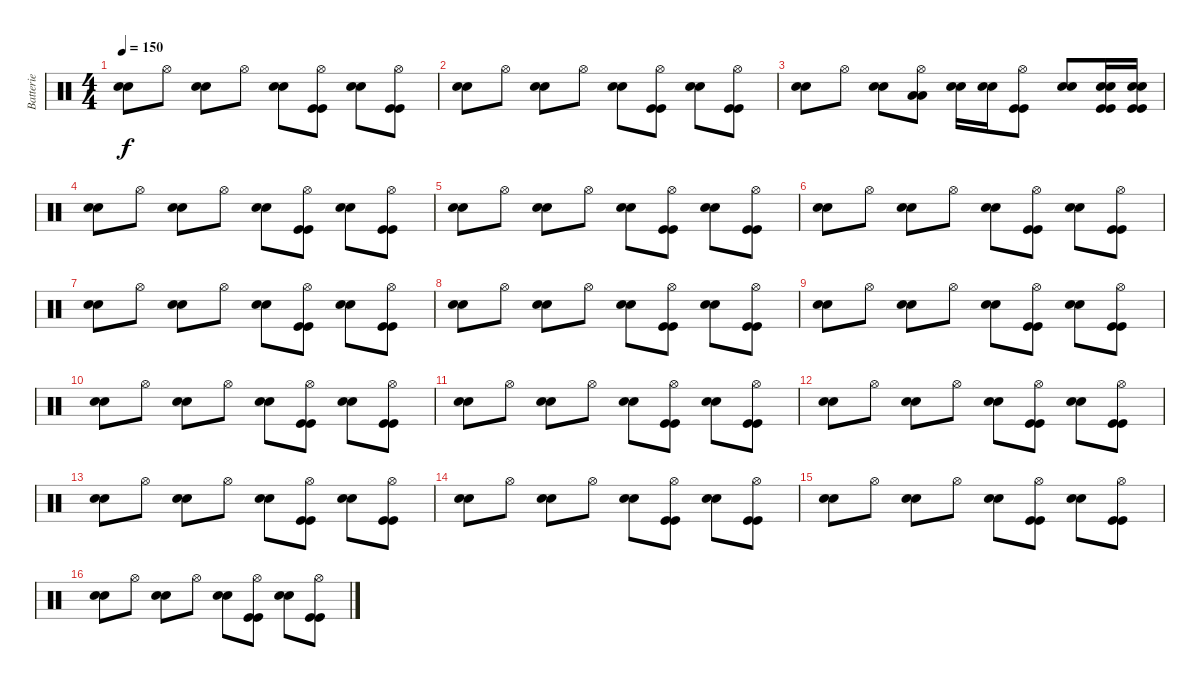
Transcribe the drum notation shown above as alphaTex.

\track ("Batterie" "Batterie") {instrument percussion}
\staff {score}
\articulation defaults
\ts (4 4)
\tempo 150
\clef neutral
\ks c
("Electric Snare (hit)" "Electric Snare (hit)").8{dy f} "Hi-Hat (open)".8 ("Electric Snare (hit)" "Electric Snare (hit)").8 "Hi-Hat (open)".8 ("Electric Snare (hit)" "Electric Snare (hit)").8 ("Hi-Hat (open)" "Kick (hit)" "Kick (hit)").8 ("Electric Snare (hit)" "Electric Snare (hit)").8 ("Hi-Hat (open)" "Kick (hit)" "Kick (hit)").8 |
("Electric Snare (hit)" "Electric Snare (hit)").8 "Hi-Hat (open)".8 ("Electric Snare (hit)" "Electric Snare (hit)").8 "Hi-Hat (open)".8 ("Electric Snare (hit)" "Electric Snare (hit)").8 ("Hi-Hat (open)" "Kick (hit)" "Kick (hit)").8 ("Electric Snare (hit)" "Electric Snare (hit)").8 ("Hi-Hat (open)" "Kick (hit)" "Kick (hit)").8 |
("Electric Snare (hit)" "Electric Snare (hit)").8 "Hi-Hat (open)".8 ("Electric Snare (hit)" "Electric Snare (hit)").8 ("Hi-Hat (open)" "Low Floor Tom (hit)" "Low Floor Tom (hit)").8 ("Electric Snare (hit)" "Electric Snare (hit)").16 ("Electric Snare (hit)" "Electric Snare (hit)").16 ("Hi-Hat (open)" "Kick (hit)" "Kick (hit)").8 ("Electric Snare (hit)" "Electric Snare (hit)").8 ("Electric Snare (hit)" "Electric Snare (hit)" "Kick (hit)" "Kick (hit)").16 ("Electric Snare (hit)" "Electric Snare (hit)" "Kick (hit)" "Kick (hit)").16 |
("Electric Snare (hit)" "Electric Snare (hit)").8 "Hi-Hat (open)".8 ("Electric Snare (hit)" "Electric Snare (hit)").8 "Hi-Hat (open)".8 ("Electric Snare (hit)" "Electric Snare (hit)").8 ("Hi-Hat (open)" "Kick (hit)" "Kick (hit)").8 ("Electric Snare (hit)" "Electric Snare (hit)").8 ("Hi-Hat (open)" "Kick (hit)" "Kick (hit)").8 |
("Electric Snare (hit)" "Electric Snare (hit)").8 "Hi-Hat (open)".8 ("Electric Snare (hit)" "Electric Snare (hit)").8 "Hi-Hat (open)".8 ("Electric Snare (hit)" "Electric Snare (hit)").8 ("Hi-Hat (open)" "Kick (hit)" "Kick (hit)").8 ("Electric Snare (hit)" "Electric Snare (hit)").8 ("Hi-Hat (open)" "Kick (hit)" "Kick (hit)").8 |
("Electric Snare (hit)" "Electric Snare (hit)").8 "Hi-Hat (open)".8 ("Electric Snare (hit)" "Electric Snare (hit)").8 "Hi-Hat (open)".8 ("Electric Snare (hit)" "Electric Snare (hit)").8 ("Hi-Hat (open)" "Kick (hit)" "Kick (hit)").8 ("Electric Snare (hit)" "Electric Snare (hit)").8 ("Hi-Hat (open)" "Kick (hit)" "Kick (hit)").8 |
("Electric Snare (hit)" "Electric Snare (hit)").8 "Hi-Hat (open)".8 ("Electric Snare (hit)" "Electric Snare (hit)").8 "Hi-Hat (open)".8 ("Electric Snare (hit)" "Electric Snare (hit)").8 ("Hi-Hat (open)" "Kick (hit)" "Kick (hit)").8 ("Electric Snare (hit)" "Electric Snare (hit)").8 ("Hi-Hat (open)" "Kick (hit)" "Kick (hit)").8 |
("Electric Snare (hit)" "Electric Snare (hit)").8 "Hi-Hat (open)".8 ("Electric Snare (hit)" "Electric Snare (hit)").8 "Hi-Hat (open)".8 ("Electric Snare (hit)" "Electric Snare (hit)").8 ("Hi-Hat (open)" "Kick (hit)" "Kick (hit)").8 ("Electric Snare (hit)" "Electric Snare (hit)").8 ("Hi-Hat (open)" "Kick (hit)" "Kick (hit)").8 |
("Electric Snare (hit)" "Electric Snare (hit)").8 "Hi-Hat (open)".8 ("Electric Snare (hit)" "Electric Snare (hit)").8 "Hi-Hat (open)".8 ("Electric Snare (hit)" "Electric Snare (hit)").8 ("Hi-Hat (open)" "Kick (hit)" "Kick (hit)").8 ("Electric Snare (hit)" "Electric Snare (hit)").8 ("Hi-Hat (open)" "Kick (hit)" "Kick (hit)").8 |
("Electric Snare (hit)" "Electric Snare (hit)").8 "Hi-Hat (open)".8 ("Electric Snare (hit)" "Electric Snare (hit)").8 "Hi-Hat (open)".8 ("Electric Snare (hit)" "Electric Snare (hit)").8 ("Hi-Hat (open)" "Kick (hit)" "Kick (hit)").8 ("Electric Snare (hit)" "Electric Snare (hit)").8 ("Hi-Hat (open)" "Kick (hit)" "Kick (hit)").8 |
("Electric Snare (hit)" "Electric Snare (hit)").8 "Hi-Hat (open)".8 ("Electric Snare (hit)" "Electric Snare (hit)").8 "Hi-Hat (open)".8 ("Electric Snare (hit)" "Electric Snare (hit)").8 ("Hi-Hat (open)" "Kick (hit)" "Kick (hit)").8 ("Electric Snare (hit)" "Electric Snare (hit)").8 ("Hi-Hat (open)" "Kick (hit)" "Kick (hit)").8 |
("Electric Snare (hit)" "Electric Snare (hit)").8 "Hi-Hat (open)".8 ("Electric Snare (hit)" "Electric Snare (hit)").8 "Hi-Hat (open)".8 ("Electric Snare (hit)" "Electric Snare (hit)").8 ("Hi-Hat (open)" "Kick (hit)" "Kick (hit)").8 ("Electric Snare (hit)" "Electric Snare (hit)").8 ("Hi-Hat (open)" "Kick (hit)" "Kick (hit)").8 |
("Electric Snare (hit)" "Electric Snare (hit)").8 "Hi-Hat (open)".8 ("Electric Snare (hit)" "Electric Snare (hit)").8 "Hi-Hat (open)".8 ("Electric Snare (hit)" "Electric Snare (hit)").8 ("Hi-Hat (open)" "Kick (hit)" "Kick (hit)").8 ("Electric Snare (hit)" "Electric Snare (hit)").8 ("Hi-Hat (open)" "Kick (hit)" "Kick (hit)").8 |
("Electric Snare (hit)" "Electric Snare (hit)").8 "Hi-Hat (open)".8 ("Electric Snare (hit)" "Electric Snare (hit)").8 "Hi-Hat (open)".8 ("Electric Snare (hit)" "Electric Snare (hit)").8 ("Hi-Hat (open)" "Kick (hit)" "Kick (hit)").8 ("Electric Snare (hit)" "Electric Snare (hit)").8 ("Hi-Hat (open)" "Kick (hit)" "Kick (hit)").8 |
("Electric Snare (hit)" "Electric Snare (hit)").8 "Hi-Hat (open)".8 ("Electric Snare (hit)" "Electric Snare (hit)").8 "Hi-Hat (open)".8 ("Electric Snare (hit)" "Electric Snare (hit)").8 ("Hi-Hat (open)" "Kick (hit)" "Kick (hit)").8 ("Electric Snare (hit)" "Electric Snare (hit)").8 ("Hi-Hat (open)" "Kick (hit)" "Kick (hit)").8 |
("Electric Snare (hit)" "Electric Snare (hit)").8 "Hi-Hat (open)".8 ("Electric Snare (hit)" "Electric Snare (hit)").8 "Hi-Hat (open)".8 ("Electric Snare (hit)" "Electric Snare (hit)").8 ("Hi-Hat (open)" "Kick (hit)" "Kick (hit)").8 ("Electric Snare (hit)" "Electric Snare (hit)").8 ("Hi-Hat (open)" "Kick (hit)" "Kick (hit)").8
